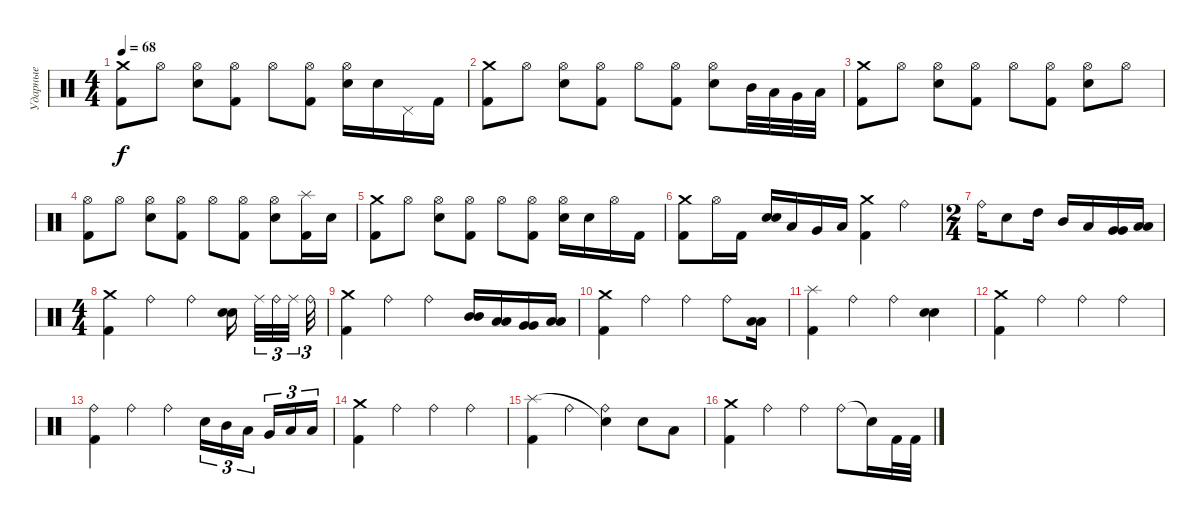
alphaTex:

\track ("Ударные" "Ударные") {instrument percussion}
\staff {score}
\articulation defaults
\ts (4 4)
\tempo 68
\clef neutral
\ks c
("Crash medium (hit)" "Kick (hit) 2").8{dy f} "Hi-Hat (open)".8 ("Hi-Hat (open)" "Snare (hit) 2").8 ("Hi-Hat (open)" "Kick (hit) 2").8 "Hi-Hat (open)".8 ("Hi-Hat (open)" "Kick (hit) 2").8 ("Hi-Hat (open)" "Snare (hit) 2").16 "Snare (hit) 2".16 "Pedal Hi-Hat (hit)".16 "Kick (hit) 2".16 |
("Crash medium (hit)" "Kick (hit) 2").8 "Hi-Hat (open)".8 ("Hi-Hat (open)" "Snare (hit) 2").8 ("Hi-Hat (open)" "Kick (hit) 2").8 "Hi-Hat (open)".8 ("Hi-Hat (open)" "Kick (hit) 2").8 ("Hi-Hat (open)" "Snare (hit) 2").8 "Mid Tom (hit)".32 "Low Tom (hit)".32 "Very Low Tom (hit)".32 "Low Floor Tom (hit)".32 |
("Crash medium (hit)" "Kick (hit) 2").8 "Hi-Hat (open)".8 ("Hi-Hat (open)" "Snare (hit) 2").8 ("Hi-Hat (open)" "Kick (hit) 2").8 "Hi-Hat (open)".8 ("Hi-Hat (open)" "Kick (hit) 2").8 ("Hi-Hat (open)" "Snare (hit) 2").8 "Hi-Hat (open)".8 |
("Hi-Hat (open)" "Kick (hit) 2").8 "Hi-Hat (open)".8 ("Hi-Hat (open)" "Snare (hit) 2").8 ("Hi-Hat (open)" "Kick (hit) 2").8 "Hi-Hat (open)".8 ("Hi-Hat (open)" "Kick (hit) 2").8 ("Hi-Hat (open)" "Snare (hit) 2").8 ("Splash (hit)" "Kick (hit) 2").16 "Snare (hit) 2".16 |
("Crash medium (hit)" "Kick (hit) 2").8 "Hi-Hat (open)".8 ("Hi-Hat (open)" "Snare (hit) 2").8 ("Hi-Hat (open)" "Kick (hit) 2").8 "Hi-Hat (open)".8 ("Hi-Hat (open)" "Kick (hit) 2").8 ("Hi-Hat (open)" "Snare (hit) 2").16 "Snare (hit) 2".16 "Hi-Hat (open)".16 "Kick (hit) 2".16 |
("Crash medium (hit)" "Kick (hit) 2").8 "Hi-Hat (open)".16 "Kick (hit) 2".16 ("Snare (hit) 2" "Snare (hit) 2").16{bd 240} "Low Tom (hit)".16 "Very Low Tom (hit)".16 "Low Floor Tom (hit)".16 ("Crash medium (hit)" "Kick (hit) 2").4 "Ride (bell)".4 |
\ts (2 4)
"Ride (bell)".16 "Snare (hit) 2".8 "High Tom (hit)".16 "Mid Tom (hit)".16 "Low Tom (hit)".16 ("Very Low Tom (hit)" "Very Low Tom (hit)").16{bd 120} ("Low Floor Tom (hit)" "Low Floor Tom (hit)").16{bd 120} |
\ts (4 4)
("Crash medium (hit)" "Kick (hit) 2").4 "Ride (bell)".4 "Ride (bell)".4 ("Snare (hit) 2" "Snare (hit) 2").16{bu 60 beam splitsecondary} "Ride (middle)".32{tu (3 2)} "Ride (bell)".32{tu (3 2)} "Ride (middle)".32{tu (3 2) beam splitsecondary} "Ride (bell)".32{tu (3 2)} |
("Crash medium (hit)" "Kick (hit) 2").4 "Ride (bell)".4 "Ride (bell)".4 ("Mid Tom (hit)" "Mid Tom (hit)").16{bu 120} ("Low Tom (hit)" "Low Tom (hit)").16{bd 120} ("Very Low Tom (hit)" "Very Low Tom (hit)").16{bu 120} ("Low Floor Tom (hit)" "Low Floor Tom (hit)").16{bd 120} |
("Crash medium (hit)" "Kick (hit) 2").4 "Ride (bell)".4 "Ride (bell)".4 "Ride (bell)".8{bu 120} ("Low Tom (hit)" "Low Tom (hit)").16{bd 120} |
("Splash (hit)" "Kick (hit) 2").4 "Ride (bell)".4 "Ride (bell)".4 ("Snare (hit) 2" "Snare (hit) 2").4{bd 60} |
("Crash medium (hit)" "Kick (hit) 2").4 "Ride (bell)".4 "Ride (bell)".4 "Ride (bell)".4 |
("Ride (bell)" "Kick (hit) 2").4 "Ride (bell)".4 "Ride (bell)".4 "Snare (hit) 2".16{tu (3 2)} "Mid Tom (hit)".16{tu (3 2)} "Low Tom (hit)".16{tu (3 2) beam splitsecondary} "Very Low Tom (hit)".16{tu (3 2)} "Low Floor Tom (hit)".16{tu (3 2)} "Low Floor Tom (hit)".16{tu (3 2)} |
("Crash medium (hit)" "Kick (hit) 2").4 "Ride (bell)".4 "Ride (bell)".4 "Ride (bell)".4 |
("Kick (hit) 2" "Splash (hit)").4 "Ride (bell)".4 ("Ride (bell)" "Snare (hit)"{t}).4 "Snare (hit) 2".8 "Low Tom (hit)".8 |
("Crash medium (hit)" "Kick (hit) 2").4 "Ride (bell)".4 "Ride (bell)".4 "Ride (bell)".8 "Snare (hit)"{t}.16 "Kick (hit) 2".32 "Kick (hit) 2".32
